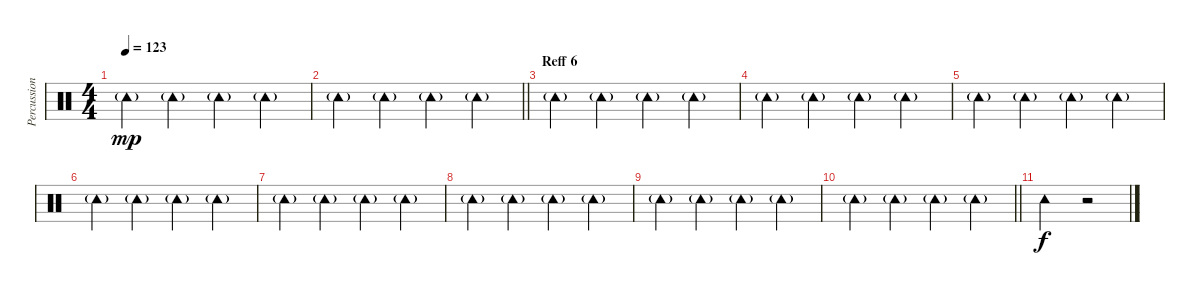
\track ("Percussion 2" "Percussion") {instrument percussion}
\staff {score}
\articulation defaults
\ts (4 4)
\tempo 123
\clef neutral
\ks c "Tambourine (hit)"{g}.4{dy mp} "Tambourine (hit)"{g}.4 "Tambourine (hit)"{g}.4 "Tambourine (hit)"{g}.4
|
\barLineRight lightlight "Tambourine (hit)"{g}.4 "Tambourine (hit)"{g}.4 "Tambourine (hit)"{g}.4 "Tambourine (hit)"{g}.4
|
\section ("" "Reff 6")
"Tambourine (hit)"{g}.4 "Tambourine (hit)"{g}.4 "Tambourine (hit)"{g}.4 "Tambourine (hit)"{g}.4 |
"Tambourine (hit)"{g}.4 "Tambourine (hit)"{g}.4 "Tambourine (hit)"{g}.4 "Tambourine (hit)"{g}.4 |
"Tambourine (hit)"{g}.4 "Tambourine (hit)"{g}.4 "Tambourine (hit)"{g}.4 "Tambourine (hit)"{g}.4 |
"Tambourine (hit)"{g}.4 "Tambourine (hit)"{g}.4 "Tambourine (hit)"{g}.4 "Tambourine (hit)"{g}.4 |
"Tambourine (hit)"{g}.4 "Tambourine (hit)"{g}.4 "Tambourine (hit)"{g}.4 "Tambourine (hit)"{g}.4 |
"Tambourine (hit)"{g}.4 "Tambourine (hit)"{g}.4 "Tambourine (hit)"{g}.4 "Tambourine (hit)"{g}.4 |
"Tambourine (hit)"{g}.4 "Tambourine (hit)"{g}.4 "Tambourine (hit)"{g}.4 "Tambourine (hit)"{g}.4 |
\barLineRight lightlight "Tambourine (hit)"{g}.4 "Tambourine (hit)"{g}.4 "Tambourine (hit)"{g}.4 "Tambourine (hit)"{g}.4
|
"Tambourine (hit)".2{dy f} r.2
